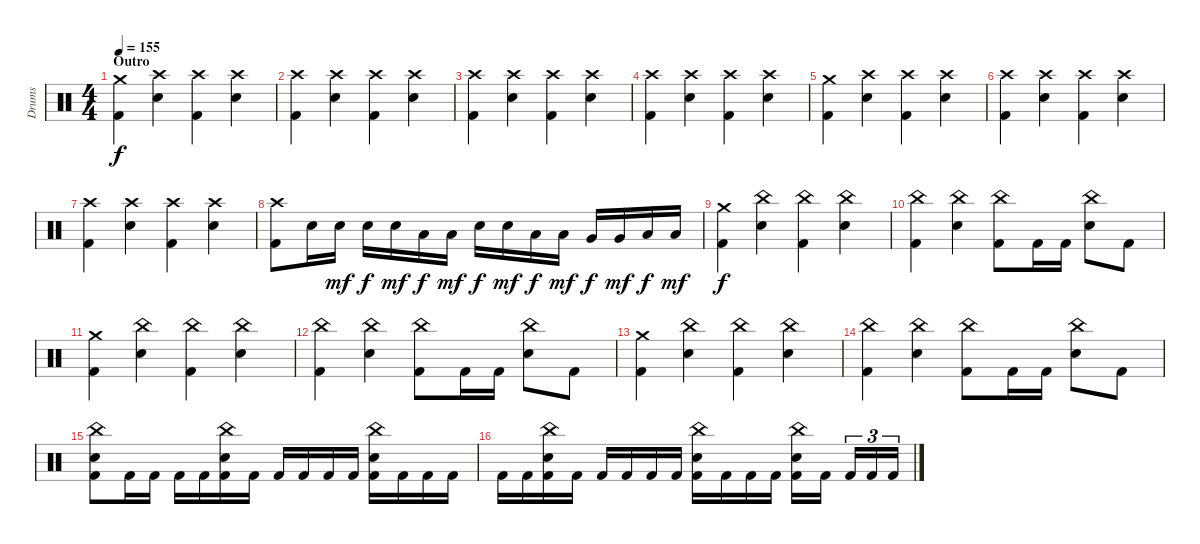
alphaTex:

\track ("Drums" "Drums") {instrument percussion}
\staff {score}
\articulation defaults
\ts (4 4)
\section ("" "Outro")
\tempo 155
\clef neutral
\ks c
("Kick (hit) 2" "Crash medium (hit)").4{dy f} ("Crash high (hit)" "Electric Snare (hit)").4 ("Kick (hit) 2" "Crash high (hit)").4 ("Crash high (hit)" "Electric Snare (hit)").4 |
("Kick (hit) 2" "Crash high (hit)").4 ("Crash high (hit)" "Electric Snare (hit)").4 ("Kick (hit) 2" "Crash high (hit)").4 ("Crash high (hit)" "Electric Snare (hit)").4 |
("Kick (hit) 2" "Crash high (hit)").4 ("Crash high (hit)" "Electric Snare (hit)").4 ("Kick (hit) 2" "Crash high (hit)").4 ("Crash high (hit)" "Electric Snare (hit)").4 |
("Kick (hit) 2" "Crash high (hit)").4 ("Crash high (hit)" "Electric Snare (hit)").4 ("Kick (hit) 2" "Crash high (hit)").4 ("Crash high (hit)" "Electric Snare (hit)").4 |
("Kick (hit) 2" "Crash medium (hit)").4 ("Crash high (hit)" "Electric Snare (hit)").4 ("Kick (hit) 2" "Crash high (hit)").4 ("Crash high (hit)" "Electric Snare (hit)").4 |
("Kick (hit) 2" "Crash high (hit)").4 ("Crash high (hit)" "Electric Snare (hit)").4 ("Kick (hit) 2" "Crash high (hit)").4 ("Crash high (hit)" "Electric Snare (hit)").4 |
("Kick (hit) 2" "Crash high (hit)").4 ("Crash high (hit)" "Electric Snare (hit)").4 ("Kick (hit) 2" "Crash high (hit)").4 ("Crash high (hit)" "Electric Snare (hit)").4 |
("Kick (hit) 2" "Crash high (hit)").8 "Electric Snare (hit)".16 "Electric Snare (hit)".16{dy mf} "Electric Snare (hit)".16{dy f} "Electric Snare (hit)".16{dy mf} "Low Tom (hit)".16{dy f} "Low Tom (hit)".16{dy mf} "Electric Snare (hit)".16{dy f} "Electric Snare (hit)".16{dy mf} "Low Tom (hit)".16{dy f} "Low Tom (hit)".16{dy mf} "Very Low Tom (hit)".16{dy f} "Very Low Tom (hit)".16{dy mf} "Low Floor Tom (hit)".16{dy f} "Low Floor Tom (hit)".16{dy mf} |
("Kick (hit) 2" "Crash medium (hit)").4{dy f} ("China (hit)" "Electric Snare (hit)").4 ("Kick (hit) 2" "China (hit)").4 ("China (hit)" "Electric Snare (hit)").4 |
("Kick (hit) 2" "China (hit)").4 ("China (hit)" "Electric Snare (hit)").4 ("Kick (hit) 2" "China (hit)").8 "Kick (hit) 2".16 "Kick (hit) 2".16 ("China (hit)" "Electric Snare (hit)").8 "Kick (hit) 2".8 |
("Kick (hit) 2" "Crash medium (hit)").4 ("China (hit)" "Electric Snare (hit)").4 ("Kick (hit) 2" "China (hit)").4 ("China (hit)" "Electric Snare (hit)").4 |
("Kick (hit) 2" "China (hit)").4 ("China (hit)" "Electric Snare (hit)").4 ("Kick (hit) 2" "China (hit)").8 "Kick (hit) 2".16 "Kick (hit) 2".16 ("China (hit)" "Electric Snare (hit)").8 "Kick (hit) 2".8 |
("Kick (hit) 2" "Crash medium (hit)").4 ("China (hit)" "Electric Snare (hit)").4 ("Kick (hit) 2" "China (hit)").4 ("China (hit)" "Electric Snare (hit)").4 |
("Kick (hit) 2" "China (hit)").4 ("China (hit)" "Electric Snare (hit)").4 ("Kick (hit) 2" "China (hit)").8 "Kick (hit) 2".16 "Kick (hit) 2".16 ("China (hit)" "Electric Snare (hit)").8 "Kick (hit) 2".8 |
("Kick (hit) 2" "China (hit)" "Electric Snare (hit)").8 "Kick (hit) 2".16 "Kick (hit) 2".16 "Kick (hit) 2".16 "Kick (hit) 2".16 ("Kick (hit) 2" "China (hit)" "Electric Snare (hit)").16 "Kick (hit) 2".16 "Kick (hit) 2".16 "Kick (hit) 2".16 "Kick (hit) 2".16 "Kick (hit) 2".16 ("Kick (hit) 2" "China (hit)" "Electric Snare (hit)").16 "Kick (hit) 2".16 "Kick (hit) 2".16 "Kick (hit) 2".16 |
"Kick (hit) 2".16 "Kick (hit) 2".16 ("Kick (hit) 2" "China (hit)" "Electric Snare (hit)").16 "Kick (hit) 2".16 "Kick (hit) 2".16 "Kick (hit) 2".16 "Kick (hit) 2".16 "Kick (hit) 2".16 ("Kick (hit) 2" "China (hit)" "Electric Snare (hit)").16 "Kick (hit) 2".16 "Kick (hit) 2".16 "Kick (hit) 2".16 ("Kick (hit) 2" "China (hit)" "Electric Snare (hit)").16 "Kick (hit) 2".16{beam splitsecondary} "Kick (hit) 2".16{tu (3 2)} "Kick (hit) 2".16{tu (3 2)} "Kick (hit) 2".16{tu (3 2)}
